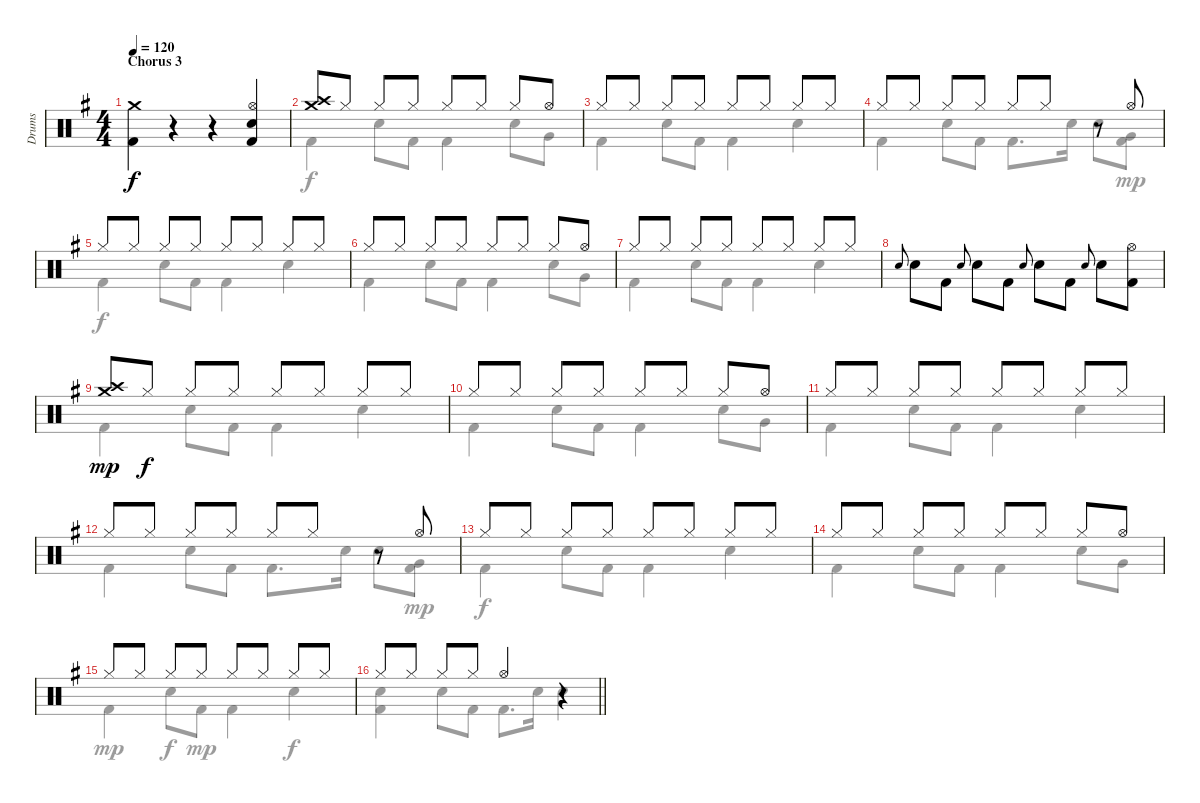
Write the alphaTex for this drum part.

\track ("Drums" "Drums") {instrument percussion}
\staff {score}
\articulation defaults
\voice
\ts (4 4)
\section ("" "Chorus 3")
\tempo 120
\clef neutral
\ks g
("Crash medium (hit)" "Kick (hit) 2").4{dy f} r.4 r.4 ("Hi-Hat (open)" "Electric Snare (hit)" "Kick (hit) 2").4 |
("Crash medium (hit)" "Crash high (hit)").8 "Hi-Hat (closed)".8 "Hi-Hat (closed)".8 "Hi-Hat (closed)".8 "Hi-Hat (closed)".8 "Hi-Hat (closed)".8 "Hi-Hat (closed)".8 "Hi-Hat (open)".8 |
"Hi-Hat (closed)".8 "Hi-Hat (closed)".8 "Hi-Hat (closed)".8 "Hi-Hat (closed)".8 "Hi-Hat (closed)".8 "Hi-Hat (closed)".8 "Hi-Hat (closed)".8 "Hi-Hat (closed)".8 |
"Hi-Hat (closed)".8 "Hi-Hat (closed)".8 "Hi-Hat (closed)".8 "Hi-Hat (closed)".8 "Hi-Hat (closed)".8 "Hi-Hat (closed)".8 r.8 "Hi-Hat (open)".8 |
"Hi-Hat (closed)".8 "Hi-Hat (closed)".8 "Hi-Hat (closed)".8 "Hi-Hat (closed)".8 "Hi-Hat (closed)".8 "Hi-Hat (closed)".8 "Hi-Hat (closed)".8 "Hi-Hat (closed)".8 |
"Hi-Hat (closed)".8 "Hi-Hat (closed)".8 "Hi-Hat (closed)".8 "Hi-Hat (closed)".8 "Hi-Hat (closed)".8 "Hi-Hat (closed)".8 "Hi-Hat (closed)".8 "Hi-Hat (open)".8 |
"Hi-Hat (closed)".8 "Hi-Hat (closed)".8 "Hi-Hat (closed)".8 "Hi-Hat (closed)".8 "Hi-Hat (closed)".8 "Hi-Hat (closed)".8 "Hi-Hat (closed)".8 "Hi-Hat (closed)".8 |
"Electric Snare (hit)"{h}.8{gr onbeat} "Electric Snare (hit)".8{beam Down} "Kick (hit) 2".8{beam Down} "Electric Snare (hit)"{h}.8{gr onbeat} "Electric Snare (hit)".8{beam Down} "Kick (hit) 2".8{beam Down} "Electric Snare (hit)"{h}.8{gr onbeat} "Electric Snare (hit)".8{beam Down} "Kick (hit) 2".8{beam Down} "Electric Snare (hit)"{h}.8{gr onbeat} "Electric Snare (hit)".8{beam Down} ("Hi-Hat (open)" "Kick (hit) 2").8{beam Down} |
("Crash medium (hit)" "Crash high (hit)").8{dy mp} "Hi-Hat (closed)".8{dy f} "Hi-Hat (closed)".8 "Hi-Hat (closed)".8 "Hi-Hat (closed)".8 "Hi-Hat (closed)".8 "Hi-Hat (closed)".8 "Hi-Hat (closed)".8 |
"Hi-Hat (closed)".8 "Hi-Hat (closed)".8 "Hi-Hat (closed)".8 "Hi-Hat (closed)".8 "Hi-Hat (closed)".8 "Hi-Hat (closed)".8 "Hi-Hat (closed)".8 "Hi-Hat (open)".8 |
"Hi-Hat (closed)".8 "Hi-Hat (closed)".8 "Hi-Hat (closed)".8 "Hi-Hat (closed)".8 "Hi-Hat (closed)".8 "Hi-Hat (closed)".8 "Hi-Hat (closed)".8 "Hi-Hat (closed)".8 |
"Hi-Hat (closed)".8 "Hi-Hat (closed)".8 "Hi-Hat (closed)".8 "Hi-Hat (closed)".8 "Hi-Hat (closed)".8 "Hi-Hat (closed)".8 r.8 "Hi-Hat (open)".8 |
"Hi-Hat (closed)".8 "Hi-Hat (closed)".8 "Hi-Hat (closed)".8 "Hi-Hat (closed)".8 "Hi-Hat (closed)".8 "Hi-Hat (closed)".8 "Hi-Hat (closed)".8 "Hi-Hat (closed)".8 |
"Hi-Hat (closed)".8 "Hi-Hat (closed)".8 "Hi-Hat (closed)".8 "Hi-Hat (closed)".8 "Hi-Hat (closed)".8 "Hi-Hat (closed)".8 "Hi-Hat (closed)".8 "Hi-Hat (open)".8 |
"Hi-Hat (closed)".8 "Hi-Hat (closed)".8 "Hi-Hat (closed)".8 "Hi-Hat (closed)".8 "Hi-Hat (closed)".8 "Hi-Hat (closed)".8 "Hi-Hat (closed)".8 "Hi-Hat (closed)".8 |
\barLineRight lightlight "Hi-Hat (closed)".8 "Hi-Hat (closed)".8 "Hi-Hat (closed)".8 "Hi-Hat (closed)".8 "Hi-Hat (open)".4
r.4
\voice
\clef neutral
\ottava regular
\simile none
\ks g
|
"Kick (hit) 2".4{dy f} "Electric Snare (hit)".8 "Kick (hit) 2".8 "Kick (hit) 2".4 "Electric Snare (hit)".8 "Very Low Tom (hit)".8 |
"Kick (hit) 2".4 "Electric Snare (hit)".8 "Kick (hit) 2".8 "Kick (hit) 2".4 "Electric Snare (hit)".4 |
"Kick (hit) 2".4 "Electric Snare (hit)".8 "Kick (hit) 2".8 "Kick (hit) 2".8{d} "Electric Snare (hit)".16 "Electric Snare (hit)".8 ("Very Low Tom (hit)" "Kick (hit) 2").8{dy mp} |
"Kick (hit) 2".4{dy f} "Electric Snare (hit)".8 "Kick (hit) 2".8 "Kick (hit) 2".4 "Electric Snare (hit)".4 |
"Kick (hit) 2".4 "Electric Snare (hit)".8 "Kick (hit) 2".8 "Kick (hit) 2".4 "Electric Snare (hit)".8 "Very Low Tom (hit)".8 |
"Kick (hit) 2".4 "Electric Snare (hit)".8 "Kick (hit) 2".8 "Kick (hit) 2".4 "Electric Snare (hit)".4 |
|
"Kick (hit) 2".4 "Electric Snare (hit)".8 "Kick (hit) 2".8 "Kick (hit) 2".4 "Electric Snare (hit)".4 |
"Kick (hit) 2".4 "Electric Snare (hit)".8 "Kick (hit) 2".8 "Kick (hit) 2".4 "Electric Snare (hit)".8 "Very Low Tom (hit)".8 |
"Kick (hit) 2".4 "Electric Snare (hit)".8 "Kick (hit) 2".8 "Kick (hit) 2".4 "Electric Snare (hit)".4 |
"Kick (hit) 2".4 "Electric Snare (hit)".8 "Kick (hit) 2".8 "Kick (hit) 2".8{d} "Electric Snare (hit)".16 "Electric Snare (hit)".8 ("Very Low Tom (hit)" "Kick (hit) 2").8{dy mp} |
"Kick (hit) 2".4{dy f} "Electric Snare (hit)".8 "Kick (hit) 2".8 "Kick (hit) 2".4 "Electric Snare (hit)".4 |
"Kick (hit) 2".4 "Electric Snare (hit)".8 "Kick (hit) 2".8 "Kick (hit) 2".4 "Electric Snare (hit)".8 "Very Low Tom (hit)".8 |
"Kick (hit) 2".4{dy mp} "Electric Snare (hit)".8{dy f} "Kick (hit) 2".8{dy mp} "Kick (hit) 2".4 "Electric Snare (hit)".4{dy f} |
\barLineRight lightlight
("Electric Snare (hit)" "Kick (hit) 2").4 "Electric Snare (hit)".8 "Kick (hit) 2".8 "Kick (hit) 2".8{d} "Electric Snare (hit)".16 "Electric Snare (hit)".4
